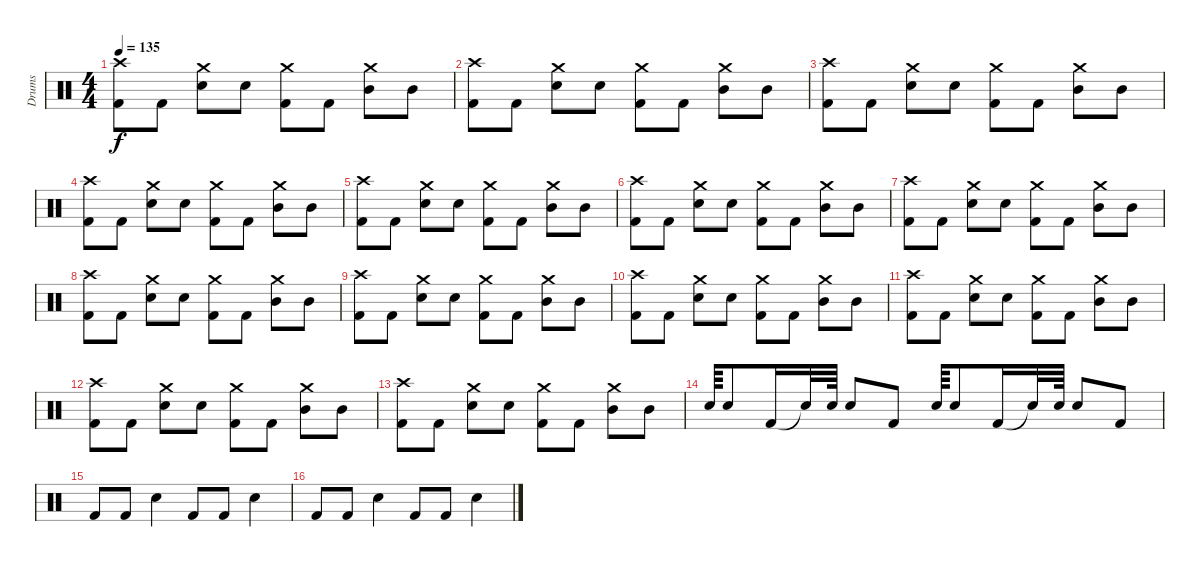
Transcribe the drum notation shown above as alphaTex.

\track ("Drums" "Drums") {instrument percussion}
\staff {score}
\articulation defaults
\ts (4 4)
\tempo 135
\clef neutral
\ks c
("Kick (hit) 2" "Crash high (hit)").8{dy f} "Kick (hit) 2".8 ("Snare (hit) 2" "Crash medium (hit)").8 "Snare (hit) 2".8 ("Kick (hit) 2" "Crash medium (hit)").8 "Kick (hit) 2".8 ("Mid Tom (hit)" "Crash medium (hit)").8 "Mid Tom (hit)".8 |
("Kick (hit) 2" "Crash high (hit)").8 "Kick (hit) 2".8 ("Snare (hit) 2" "Crash medium (hit)").8 "Snare (hit) 2".8 ("Kick (hit) 2" "Crash medium (hit)").8 "Kick (hit) 2".8 ("Mid Tom (hit)" "Crash medium (hit)").8 "Mid Tom (hit)".8 |
("Kick (hit) 2" "Crash high (hit)").8 "Kick (hit) 2".8 ("Snare (hit) 2" "Crash medium (hit)").8 "Snare (hit) 2".8 ("Kick (hit) 2" "Crash medium (hit)").8 "Kick (hit) 2".8 ("Mid Tom (hit)" "Crash medium (hit)").8 "Mid Tom (hit)".8 |
("Kick (hit) 2" "Crash high (hit)").8 "Kick (hit) 2".8 ("Snare (hit) 2" "Crash medium (hit)").8 "Snare (hit) 2".8 ("Kick (hit) 2" "Crash medium (hit)").8 "Kick (hit) 2".8 ("Mid Tom (hit)" "Crash medium (hit)").8 "Mid Tom (hit)".8 |
("Kick (hit) 2" "Crash high (hit)").8 "Kick (hit) 2".8 ("Snare (hit) 2" "Crash medium (hit)").8 "Snare (hit) 2".8 ("Kick (hit) 2" "Crash medium (hit)").8 "Kick (hit) 2".8 ("Mid Tom (hit)" "Crash medium (hit)").8 "Mid Tom (hit)".8 |
("Kick (hit) 2" "Crash high (hit)").8 "Kick (hit) 2".8 ("Snare (hit) 2" "Crash medium (hit)").8 "Snare (hit) 2".8 ("Kick (hit) 2" "Crash medium (hit)").8 "Kick (hit) 2".8 ("Mid Tom (hit)" "Crash medium (hit)").8 "Mid Tom (hit)".8 |
("Kick (hit) 2" "Crash high (hit)").8 "Kick (hit) 2".8 ("Snare (hit) 2" "Crash medium (hit)").8 "Snare (hit) 2".8 ("Kick (hit) 2" "Crash medium (hit)").8 "Kick (hit) 2".8 ("Mid Tom (hit)" "Crash medium (hit)").8 "Mid Tom (hit)".8 |
("Kick (hit) 2" "Crash high (hit)").8 "Kick (hit) 2".8 ("Snare (hit) 2" "Crash medium (hit)").8 "Snare (hit) 2".8 ("Kick (hit) 2" "Crash medium (hit)").8 "Kick (hit) 2".8 ("Mid Tom (hit)" "Crash medium (hit)").8 "Mid Tom (hit)".8 |
("Kick (hit) 2" "Crash high (hit)").8 "Kick (hit) 2".8 ("Snare (hit) 2" "Crash medium (hit)").8 "Snare (hit) 2".8 ("Kick (hit) 2" "Crash medium (hit)").8 "Kick (hit) 2".8 ("Mid Tom (hit)" "Crash medium (hit)").8 "Mid Tom (hit)".8 |
("Kick (hit) 2" "Crash high (hit)").8 "Kick (hit) 2".8 ("Snare (hit) 2" "Crash medium (hit)").8 "Snare (hit) 2".8 ("Kick (hit) 2" "Crash medium (hit)").8 "Kick (hit) 2".8 ("Mid Tom (hit)" "Crash medium (hit)").8 "Mid Tom (hit)".8 |
("Kick (hit) 2" "Crash high (hit)").8 "Kick (hit) 2".8 ("Snare (hit) 2" "Crash medium (hit)").8 "Snare (hit) 2".8 ("Kick (hit) 2" "Crash medium (hit)").8 "Kick (hit) 2".8 ("Mid Tom (hit)" "Crash medium (hit)").8 "Mid Tom (hit)".8 |
("Kick (hit) 2" "Crash high (hit)").8 "Kick (hit) 2".8 ("Snare (hit) 2" "Crash medium (hit)").8 "Snare (hit) 2".8 ("Kick (hit) 2" "Crash medium (hit)").8 "Kick (hit) 2".8 ("Mid Tom (hit)" "Crash medium (hit)").8 "Mid Tom (hit)".8 |
("Kick (hit) 2" "Crash high (hit)").8 "Kick (hit) 2".8 ("Snare (hit) 2" "Crash medium (hit)").8 "Snare (hit) 2".8 ("Kick (hit) 2" "Crash medium (hit)").8 "Kick (hit) 2".8 ("Mid Tom (hit)" "Crash medium (hit)").8 "Mid Tom (hit)".8 |
"Snare (hit) 2".64 "Snare (hit) 2".8 "Kick (hit) 2".16 "Snare (hit)"{t}.32 "Snare (hit) 2".64 "Snare (hit) 2".8 "Kick (hit) 2".8 "Snare (hit) 2".64 "Snare (hit) 2".8 "Kick (hit) 2".16 "Snare (hit)"{t}.32 "Snare (hit) 2".64 "Snare (hit) 2".8 "Kick (hit) 2".8 |
"Kick (hit) 2".8 "Kick (hit) 2".8 "Snare (hit) 2".4 "Kick (hit) 2".8 "Kick (hit) 2".8 "Snare (hit) 2".4 |
"Kick (hit) 2".8 "Kick (hit) 2".8 "Snare (hit) 2".4 "Kick (hit) 2".8 "Kick (hit) 2".8 "Snare (hit) 2".4
